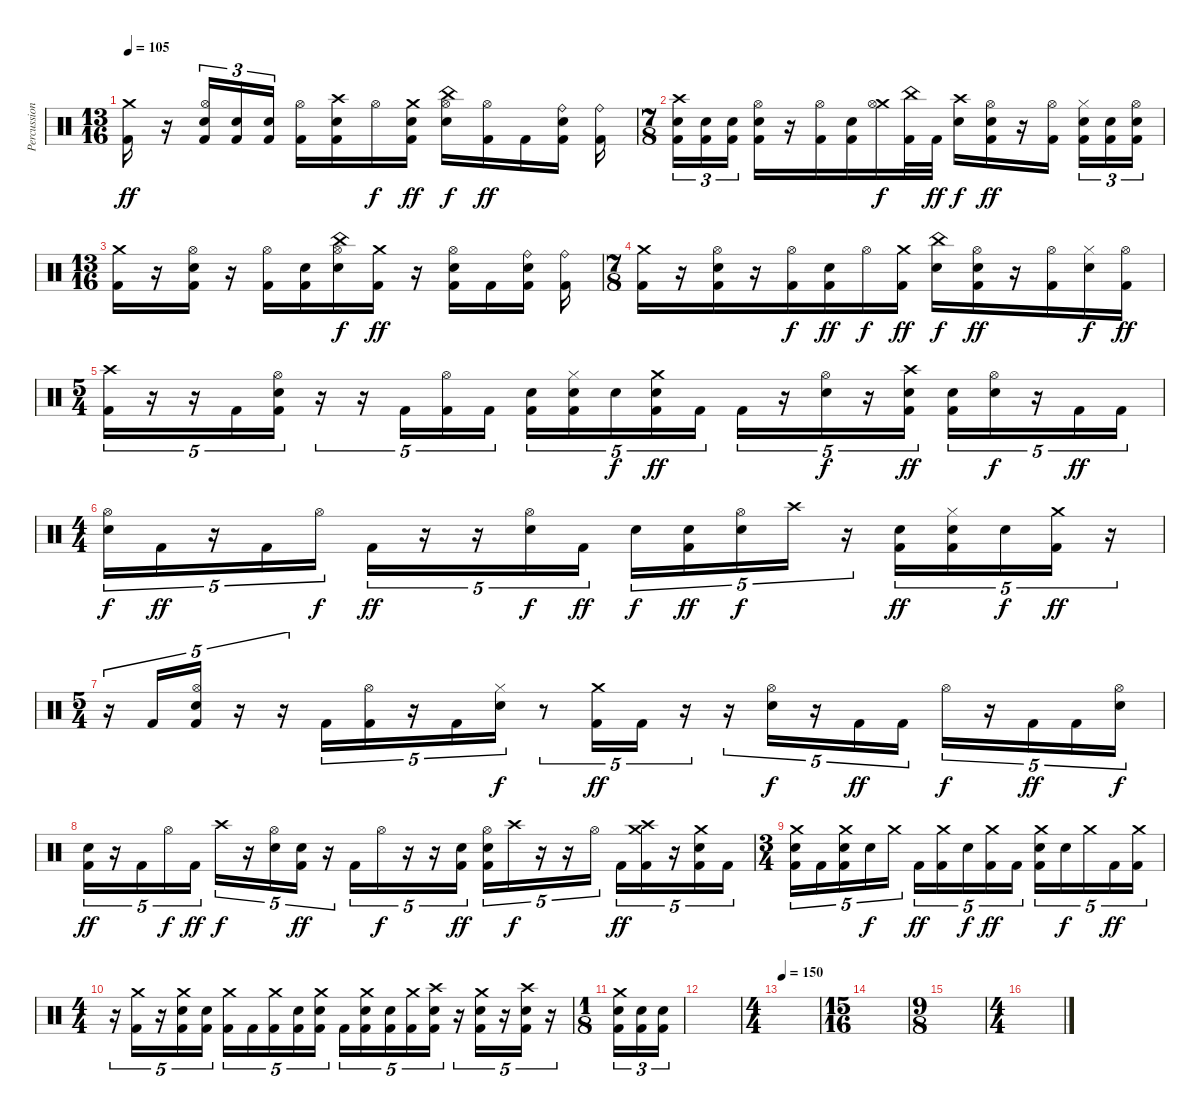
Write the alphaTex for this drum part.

\track ("Percussion" "Percussion") {instrument percussion}
\staff {score}
\articulation defaults
\ts (13 16)
\tempo 105
\clef neutral
\ks c
("Crash medium (hit)" "Kick (hit) 2").16{dy ff} r.16 ("Hi-Hat (open)" "Electric Snare (hit)" "Kick (hit) 2").16{tu (3 2)} ("Electric Snare (hit)" "Kick (hit) 2").16{tu (3 2)} ("Electric Snare (hit)" "Kick (hit) 2").16{tu (3 2)} ("Hi-Hat (open)" "Kick (hit) 2").16 ("Crash high (hit)" "Electric Snare (hit)" "Kick (hit) 2").16 "Hi-Hat (open)".16{dy f} ("Crash medium (hit)" "Electric Snare (hit)" "Kick (hit) 2").16{dy ff} ("China (hit)" "Hi-Hat (open)" "Electric Snare (hit)").16{dy f} ("Hi-Hat (open)" "Kick (hit) 2").16{dy ff} "Kick (hit) 2".16 ("Ride (bell)" "Electric Snare (hit)" "Kick (hit) 2").16 ("Ride (bell)" "Kick (hit) 2").16 |
\ts (7 8)
("Crash high (hit)" "Electric Snare (hit)" "Kick (hit) 2").16{tu (3 2)} ("Electric Snare (hit)" "Kick (hit) 2").16{tu (3 2)} ("Electric Snare (hit)" "Kick (hit) 2").16{tu (3 2)} ("Hi-Hat (open)" "Electric Snare (hit)" "Kick (hit) 2").16 r.16 ("Hi-Hat (open)" "Kick (hit) 2").16 ("Electric Snare (hit)" "Kick (hit) 2").16 ("Crash medium (hit)" "Hi-Hat (open)").16{dy f} ("China (hit)" "Kick (hit) 2").32 "Kick (hit) 2".32{dy ff} ("Crash high (hit)" "Electric Snare (hit)").16{dy f} ("Hi-Hat (open)" "Electric Snare (hit)" "Kick (hit) 2").16{dy ff} r.16 ("Hi-Hat (open)" "Kick (hit) 2").16 ("Hi-Hat (closed)" "Electric Snare (hit)" "Kick (hit) 2").16{tu (3 2)} ("Electric Snare (hit)" "Kick (hit) 2").16{tu (3 2)} ("Hi-Hat (open)" "Electric Snare (hit)" "Kick (hit) 2").16{tu (3 2)} |
\ts (13 16)
("Crash medium (hit)" "Kick (hit) 2").16 r.16 ("Hi-Hat (open)" "Electric Snare (hit)" "Kick (hit) 2").16 r.16 ("Hi-Hat (open)" "Kick (hit) 2").16 ("Electric Snare (hit)" "Kick (hit) 2").16 ("China (hit)" "Hi-Hat (open)" "Electric Snare (hit)").16{dy f} ("Crash medium (hit)" "Kick (hit) 2").16{dy ff} r.16 ("Hi-Hat (open)" "Electric Snare (hit)" "Kick (hit) 2").16 "Kick (hit) 2".16 ("Ride (bell)" "Electric Snare (hit)" "Kick (hit) 2").16 ("Ride (bell)" "Kick (hit) 2").16 |
\ts (7 8)
("Crash medium (hit)" "Kick (hit) 2").16 r.16 ("Hi-Hat (open)" "Electric Snare (hit)" "Kick (hit) 2").16 r.16 ("Hi-Hat (open)" "Kick (hit) 2").16{dy f} ("Electric Snare (hit)" "Kick (hit) 2").16{dy ff} "Hi-Hat (open)".16{dy f} ("Crash medium (hit)" "Kick (hit) 2").16{dy ff} ("China (hit)" "Electric Snare (hit)").16{dy f} ("Hi-Hat (open)" "Electric Snare (hit)" "Kick (hit) 2").16{dy ff} r.16 ("Hi-Hat (open)" "Kick (hit) 2").16 ("Hi-Hat (closed)" "Electric Snare (hit)").16{dy f} ("Hi-Hat (open)" "Kick (hit) 2").16{dy ff} |
\ts (5 4)
("Crash high (hit)" "Kick (hit) 2").16{tu (5 4)} r.16{tu (5 4)} r.16{tu (5 4)} "Kick (hit) 2".16{tu (5 4)} ("Hi-Hat (open)" "Electric Snare (hit)" "Kick (hit) 2").16{tu (5 4)} r.16{tu (5 4)} r.16{tu (5 4)} "Kick (hit) 2".16{tu (5 4)} ("Hi-Hat (open)" "Kick (hit) 2").16{tu (5 4)} "Kick (hit) 2".16{tu (5 4)} ("Electric Snare (hit)" "Kick (hit) 2").16{tu (5 4)} ("Hi-Hat (closed)" "Electric Snare (hit)" "Kick (hit) 2").16{tu (5 4)} "Electric Snare (hit)".16{tu (5 4) dy f} ("Crash medium (hit)" "Electric Snare (hit)" "Kick (hit) 2").16{tu (5 4) dy ff} "Kick (hit) 2".16{tu (5 4)} "Kick (hit) 2".16{tu (5 4)} r.16{tu (5 4)} ("Hi-Hat (open)" "Electric Snare (hit)").16{tu (5 4) dy f} r.16{tu (5 4)} ("Crash high (hit)" "Electric Snare (hit)" "Kick (hit) 2").16{tu (5 4) dy ff} ("Electric Snare (hit)" "Kick (hit) 2").16{tu (5 4)} ("Hi-Hat (open)" "Electric Snare (hit)").16{tu (5 4) dy f} r.16{tu (5 4)} "Kick (hit) 2".16{tu (5 4) dy ff} "Kick (hit) 2".16{tu (5 4)} |
\ts (4 4)
("Hi-Hat (open)" "Electric Snare (hit)").16{tu (5 4) dy f} "Kick (hit) 2".16{tu (5 4) dy ff} r.16{tu (5 4)} "Kick (hit) 2".16{tu (5 4)} "Hi-Hat (open)".16{tu (5 4) dy f} "Kick (hit) 2".16{tu (5 4) dy ff} r.16{tu (5 4)} r.16{tu (5 4)} ("Hi-Hat (open)" "Electric Snare (hit)").16{tu (5 4) dy f} "Kick (hit) 2".16{tu (5 4) dy ff} "Electric Snare (hit)".16{tu (5 4) dy f} ("Electric Snare (hit)" "Kick (hit) 2").16{tu (5 4) dy ff} ("Hi-Hat (open)" "Electric Snare (hit)").16{tu (5 4) dy f} "Crash high (hit)".16{tu (5 4)} r.16{tu (5 4)} ("Electric Snare (hit)" "Kick (hit) 2").16{tu (5 4) dy ff} ("Hi-Hat (closed)" "Electric Snare (hit)" "Kick (hit) 2").16{tu (5 4)} "Electric Snare (hit)".16{tu (5 4) dy f} ("Crash medium (hit)" "Kick (hit) 2").16{tu (5 4) dy ff} r.16{tu (5 4)} |
\ts (5 4)
r.16{tu (5 4)} "Kick (hit) 2".16{tu (5 4)} ("Hi-Hat (open)" "Electric Snare (hit)" "Kick (hit) 2").16{tu (5 4)} r.16{tu (5 4)} r.16{tu (5 4)} "Kick (hit) 2".16{tu (5 4)} ("Hi-Hat (open)" "Kick (hit) 2").16{tu (5 4)} r.16{tu (5 4)} "Kick (hit) 2".16{tu (5 4)} ("Hi-Hat (closed)" "Electric Snare (hit)").16{tu (5 4) dy f} r.8{tu (5 4)} ("Crash medium (hit)" "Kick (hit) 2").16{tu (5 4) dy ff} "Kick (hit) 2".16{tu (5 4)} r.16{tu (5 4)} r.16{tu (5 4)} ("Hi-Hat (open)" "Electric Snare (hit)").16{tu (5 4) dy f} r.16{tu (5 4)} "Kick (hit) 2".16{tu (5 4) dy ff} "Kick (hit) 2".16{tu (5 4)} "Hi-Hat (open)".16{tu (5 4) dy f} r.16{tu (5 4)} "Kick (hit) 2".16{tu (5 4) dy ff} "Kick (hit) 2".16{tu (5 4)} ("Hi-Hat (open)" "Electric Snare (hit)").16{tu (5 4) dy f} |
("Electric Snare (hit)" "Kick (hit) 2").16{tu (5 4) dy ff} r.16{tu (5 4)} "Kick (hit) 2".16{tu (5 4)} "Hi-Hat (open)".16{tu (5 4) dy f} "Kick (hit) 2".16{tu (5 4) dy ff} "Crash high (hit)".16{tu (5 4) dy f} r.16{tu (5 4)} ("Hi-Hat (open)" "Electric Snare (hit)").16{tu (5 4)} ("Electric Snare (hit)" "Kick (hit) 2").16{tu (5 4) dy ff} r.16{tu (5 4)} "Kick (hit) 2".16{tu (5 4)} "Hi-Hat (open)".16{tu (5 4) dy f} r.16{tu (5 4)} r.16{tu (5 4)} ("Electric Snare (hit)" "Kick (hit) 2").16{tu (5 4) dy ff} ("Hi-Hat (open)" "Electric Snare (hit)" "Kick (hit) 2").16{tu (5 4)} "Crash high (hit)".16{tu (5 4) dy f} r.16{tu (5 4)} r.16{tu (5 4)} "Hi-Hat (open)".16{tu (5 4)} "Kick (hit) 2".16{tu (5 4) dy ff} ("Crash medium (hit)" "Crash high (hit)" "Kick (hit) 2").16{tu (5 4)} r.16{tu (5 4)} ("Crash medium (hit)" "Electric Snare (hit)" "Kick (hit) 2").16{tu (5 4)} "Kick (hit) 2".16{tu (5 4)} |
\ts (3 4)
("Crash medium (hit)" "Electric Snare (hit)" "Kick (hit) 2").16{tu (5 4)} "Kick (hit) 2".16{tu (5 4)} ("Crash medium (hit)" "Electric Snare (hit)" "Kick (hit) 2").16{tu (5 4)} "Electric Snare (hit)".16{tu (5 4) dy f} "Crash medium (hit)".16{tu (5 4)} "Kick (hit) 2".16{tu (5 4) dy ff} ("Crash medium (hit)" "Kick (hit) 2").16{tu (5 4)} "Electric Snare (hit)".16{tu (5 4) dy f} ("Crash medium (hit)" "Kick (hit) 2").16{tu (5 4) dy ff} "Kick (hit) 2".16{tu (5 4)} ("Crash medium (hit)" "Electric Snare (hit)" "Kick (hit) 2").16{tu (5 4)} "Electric Snare (hit)".16{tu (5 4) dy f} "Crash medium (hit)".16{tu (5 4)} "Kick (hit) 2".16{tu (5 4) dy ff} ("Crash medium (hit)" "Kick (hit) 2").16{tu (5 4)} |
\ts (4 4)
r.16{tu (5 4)} ("Crash medium (hit)" "Kick (hit) 2").16{tu (5 4)} r.16{tu (5 4)} ("Crash medium (hit)" "Electric Snare (hit)" "Kick (hit) 2").16{tu (5 4)} ("Electric Snare (hit)" "Kick (hit) 2").16{tu (5 4)} ("Crash medium (hit)" "Kick (hit) 2").16{tu (5 4)} "Kick (hit) 2".16{tu (5 4)} ("Crash medium (hit)" "Kick (hit) 2").16{tu (5 4)} ("Electric Snare (hit)" "Kick (hit) 2").16{tu (5 4)} ("Crash medium (hit)" "Electric Snare (hit)" "Kick (hit) 2").16{tu (5 4)} "Kick (hit) 2".16{tu (5 4)} ("Crash medium (hit)" "Electric Snare (hit)" "Kick (hit) 2").16{tu (5 4)} ("Electric Snare (hit)" "Kick (hit) 2").16{tu (5 4)} ("Crash medium (hit)" "Kick (hit) 2").16{tu (5 4)} ("Crash high (hit)" "Electric Snare (hit)" "Kick (hit) 2").16{tu (5 4)} r.16{tu (5 4)} ("Crash medium (hit)" "Electric Snare (hit)" "Kick (hit) 2").16{tu (5 4)} r.16{tu (5 4)} ("Crash high (hit)" "Electric Snare (hit)" "Kick (hit) 2").16{tu (5 4)} r.16{tu (5 4)} |
\ts (1 8)
("Crash medium (hit)" "Electric Snare (hit)" "Kick (hit) 2").16{tu (3 2)} ("Electric Snare (hit)" "Kick (hit) 2").16{tu (3 2)} ("Electric Snare (hit)" "Kick (hit) 2").16{tu (3 2)} |
|
\ts (4 4)
\tempo 150
|
\ts (15 16)
|
\ts (9 8)
|
\ts (4 4)
